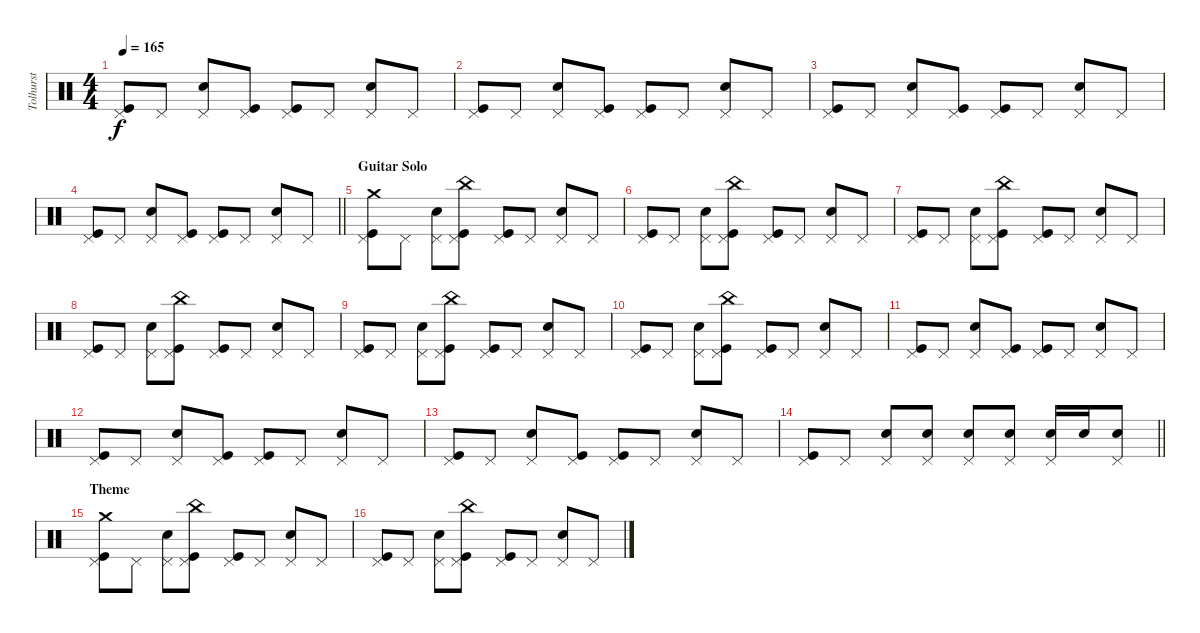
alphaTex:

\track ("Tolhurst" "Tolhurst") {instrument percussion}
\staff {score}
\articulation defaults
\ts (4 4)
\tempo 165
\clef neutral
\ks c
("Pedal Hi-Hat (hit)" "Kick (hit)").8{dy f} "Pedal Hi-Hat (hit)".8 ("Pedal Hi-Hat (hit)" "Snare (hit) 2").8 ("Pedal Hi-Hat (hit)" "Kick (hit)").8 ("Pedal Hi-Hat (hit)" "Kick (hit)").8 "Pedal Hi-Hat (hit)".8 ("Pedal Hi-Hat (hit)" "Snare (hit) 2").8 "Pedal Hi-Hat (hit)".8 |
("Pedal Hi-Hat (hit)" "Kick (hit)").8 "Pedal Hi-Hat (hit)".8 ("Pedal Hi-Hat (hit)" "Snare (hit) 2").8 ("Pedal Hi-Hat (hit)" "Kick (hit)").8 ("Pedal Hi-Hat (hit)" "Kick (hit)").8 "Pedal Hi-Hat (hit)".8 ("Pedal Hi-Hat (hit)" "Snare (hit) 2").8 "Pedal Hi-Hat (hit)".8 |
("Pedal Hi-Hat (hit)" "Kick (hit)").8 "Pedal Hi-Hat (hit)".8 ("Pedal Hi-Hat (hit)" "Snare (hit) 2").8 ("Pedal Hi-Hat (hit)" "Kick (hit)").8 ("Pedal Hi-Hat (hit)" "Kick (hit)").8 "Pedal Hi-Hat (hit)".8 ("Pedal Hi-Hat (hit)" "Snare (hit) 2").8 "Pedal Hi-Hat (hit)".8 |
\barLineRight lightlight
("Pedal Hi-Hat (hit)" "Kick (hit)").8 "Pedal Hi-Hat (hit)".8 ("Pedal Hi-Hat (hit)" "Snare (hit) 2").8 ("Pedal Hi-Hat (hit)" "Kick (hit)").8 ("Pedal Hi-Hat (hit)" "Kick (hit)").8 "Pedal Hi-Hat (hit)".8 ("Pedal Hi-Hat (hit)" "Snare (hit) 2").8 "Pedal Hi-Hat (hit)".8 |
\section ("" "Guitar Solo")
("Crash medium (hit)" "Pedal Hi-Hat (hit)" "Kick (hit)").8 "Pedal Hi-Hat (hit)".8 ("Pedal Hi-Hat (hit)" "Snare (hit) 2").8 ("China (hit)" "Pedal Hi-Hat (hit)" "Kick (hit)").8 ("Pedal Hi-Hat (hit)" "Kick (hit)").8 "Pedal Hi-Hat (hit)".8 ("Pedal Hi-Hat (hit)" "Snare (hit) 2").8 "Pedal Hi-Hat (hit)".8 |
("Pedal Hi-Hat (hit)" "Kick (hit)").8 "Pedal Hi-Hat (hit)".8 ("Pedal Hi-Hat (hit)" "Snare (hit) 2").8 ("China (hit)" "Pedal Hi-Hat (hit)" "Kick (hit)").8 ("Pedal Hi-Hat (hit)" "Kick (hit)").8 "Pedal Hi-Hat (hit)".8 ("Pedal Hi-Hat (hit)" "Snare (hit) 2").8 "Pedal Hi-Hat (hit)".8 |
("Pedal Hi-Hat (hit)" "Kick (hit)").8 "Pedal Hi-Hat (hit)".8 ("Pedal Hi-Hat (hit)" "Snare (hit) 2").8 ("China (hit)" "Pedal Hi-Hat (hit)" "Kick (hit)").8 ("Pedal Hi-Hat (hit)" "Kick (hit)").8 "Pedal Hi-Hat (hit)".8 ("Pedal Hi-Hat (hit)" "Snare (hit) 2").8 "Pedal Hi-Hat (hit)".8 |
("Pedal Hi-Hat (hit)" "Kick (hit)").8 "Pedal Hi-Hat (hit)".8 ("Pedal Hi-Hat (hit)" "Snare (hit) 2").8 ("China (hit)" "Pedal Hi-Hat (hit)" "Kick (hit)").8 ("Pedal Hi-Hat (hit)" "Kick (hit)").8 "Pedal Hi-Hat (hit)".8 ("Pedal Hi-Hat (hit)" "Snare (hit) 2").8 "Pedal Hi-Hat (hit)".8 |
("Pedal Hi-Hat (hit)" "Kick (hit)").8 "Pedal Hi-Hat (hit)".8 ("Pedal Hi-Hat (hit)" "Snare (hit) 2").8 ("China (hit)" "Pedal Hi-Hat (hit)" "Kick (hit)").8 ("Pedal Hi-Hat (hit)" "Kick (hit)").8 "Pedal Hi-Hat (hit)".8 ("Pedal Hi-Hat (hit)" "Snare (hit) 2").8 "Pedal Hi-Hat (hit)".8 |
("Pedal Hi-Hat (hit)" "Kick (hit)").8 "Pedal Hi-Hat (hit)".8 ("Pedal Hi-Hat (hit)" "Snare (hit) 2").8 ("China (hit)" "Pedal Hi-Hat (hit)" "Kick (hit)").8 ("Pedal Hi-Hat (hit)" "Kick (hit)").8 "Pedal Hi-Hat (hit)".8 ("Pedal Hi-Hat (hit)" "Snare (hit) 2").8 "Pedal Hi-Hat (hit)".8 |
("Pedal Hi-Hat (hit)" "Kick (hit)").8 "Pedal Hi-Hat (hit)".8 ("Pedal Hi-Hat (hit)" "Snare (hit) 2").8 ("Pedal Hi-Hat (hit)" "Kick (hit)").8 ("Pedal Hi-Hat (hit)" "Kick (hit)").8 "Pedal Hi-Hat (hit)".8 ("Pedal Hi-Hat (hit)" "Snare (hit) 2").8 "Pedal Hi-Hat (hit)".8 |
("Pedal Hi-Hat (hit)" "Kick (hit)").8 "Pedal Hi-Hat (hit)".8 ("Pedal Hi-Hat (hit)" "Snare (hit) 2").8 ("Pedal Hi-Hat (hit)" "Kick (hit)").8 ("Pedal Hi-Hat (hit)" "Kick (hit)").8 "Pedal Hi-Hat (hit)".8 ("Pedal Hi-Hat (hit)" "Snare (hit) 2").8 "Pedal Hi-Hat (hit)".8 |
("Pedal Hi-Hat (hit)" "Kick (hit)").8 "Pedal Hi-Hat (hit)".8 ("Pedal Hi-Hat (hit)" "Snare (hit) 2").8 ("Pedal Hi-Hat (hit)" "Kick (hit)").8 ("Pedal Hi-Hat (hit)" "Kick (hit)").8 "Pedal Hi-Hat (hit)".8 ("Pedal Hi-Hat (hit)" "Snare (hit) 2").8 "Pedal Hi-Hat (hit)".8 |
\barLineRight lightlight
("Pedal Hi-Hat (hit)" "Kick (hit)").8 "Pedal Hi-Hat (hit)".8 ("Pedal Hi-Hat (hit)" "Snare (hit) 2").8 ("Pedal Hi-Hat (hit)" "Snare (hit) 2").8 ("Pedal Hi-Hat (hit)" "Snare (hit) 2").8 ("Pedal Hi-Hat (hit)" "Snare (hit) 2").8 ("Pedal Hi-Hat (hit)" "Snare (hit) 2").16 "Snare (hit) 2".16 ("Pedal Hi-Hat (hit)" "Snare (hit) 2").8 |
\section ("" "Theme")
("Crash medium (hit)" "Pedal Hi-Hat (hit)" "Kick (hit)").8 "Pedal Hi-Hat (hit)".8 ("Pedal Hi-Hat (hit)" "Snare (hit) 2").8 ("China (hit)" "Pedal Hi-Hat (hit)" "Kick (hit)").8 ("Pedal Hi-Hat (hit)" "Kick (hit)").8 "Pedal Hi-Hat (hit)".8 ("Pedal Hi-Hat (hit)" "Snare (hit) 2").8 "Pedal Hi-Hat (hit)".8 |
("Pedal Hi-Hat (hit)" "Kick (hit)").8 "Pedal Hi-Hat (hit)".8 ("Pedal Hi-Hat (hit)" "Snare (hit) 2").8 ("China (hit)" "Pedal Hi-Hat (hit)" "Kick (hit)").8 ("Pedal Hi-Hat (hit)" "Kick (hit)").8 "Pedal Hi-Hat (hit)".8 ("Pedal Hi-Hat (hit)" "Snare (hit) 2").8 "Pedal Hi-Hat (hit)".8
